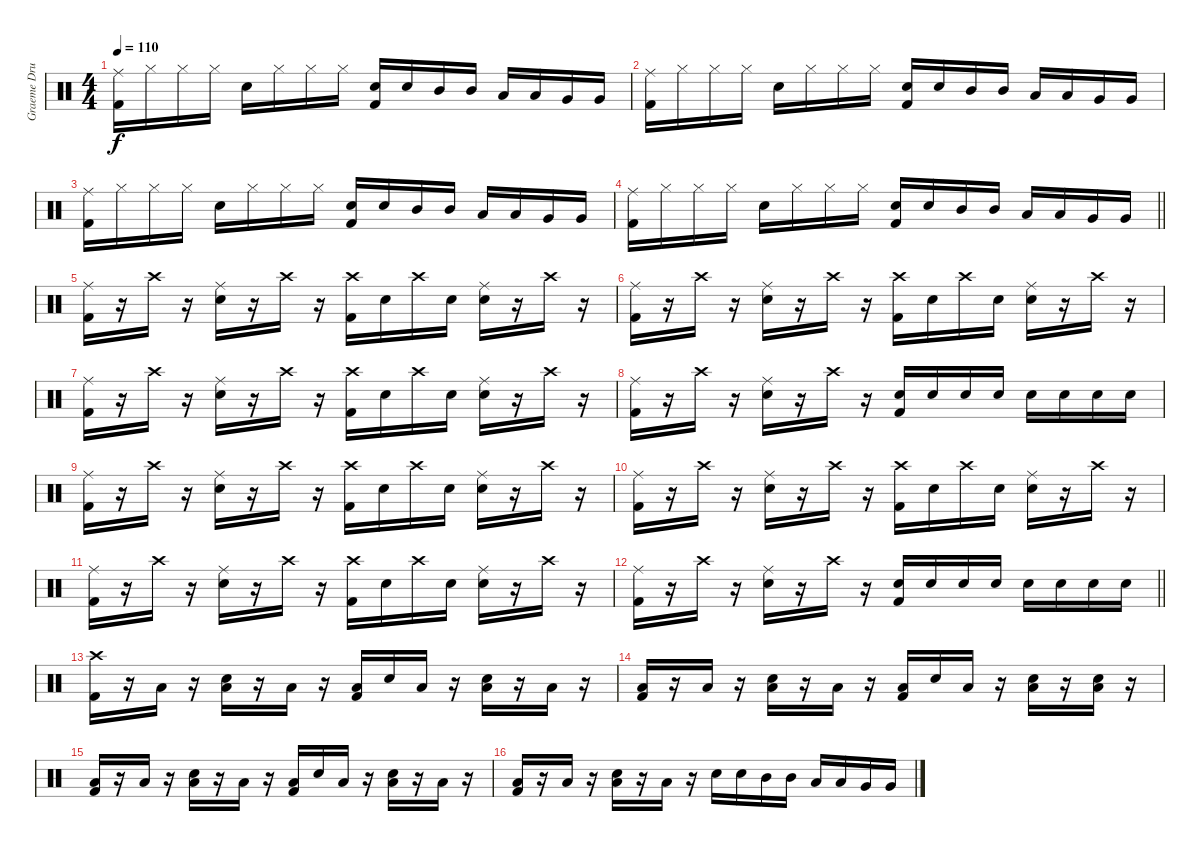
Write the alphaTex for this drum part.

\track ("Graeme Drums" "Graeme Dru") {instrument percussion}
\staff {score}
\articulation defaults
\ts (4 4)
\tempo 110
\clef neutral
\ks c
("Kick (hit) 2" "Ride (middle)").16{dy f} "Hi-Hat (closed)".16 "Hi-Hat (closed)".16 "Hi-Hat (closed)".16 "Snare (hit) 2".16 "Hi-Hat (closed)".16 "Hi-Hat (closed)".16 "Hi-Hat (closed)".16 ("Kick (hit) 2" "Snare (hit) 2").16 "Snare (hit) 2".16 "Mid Tom (hit)".16 "Mid Tom (hit)".16 "Low Tom (hit)".16 "Low Tom (hit)".16 "Very Low Tom (hit)".16 "Very Low Tom (hit)".16 |
("Kick (hit) 2" "Ride (middle)").16 "Hi-Hat (closed)".16 "Hi-Hat (closed)".16 "Hi-Hat (closed)".16 "Snare (hit) 2".16 "Hi-Hat (closed)".16 "Hi-Hat (closed)".16 "Hi-Hat (closed)".16 ("Kick (hit) 2" "Snare (hit) 2").16 "Snare (hit) 2".16 "Mid Tom (hit)".16 "Mid Tom (hit)".16 "Low Tom (hit)".16 "Low Tom (hit)".16 "Very Low Tom (hit)".16 "Very Low Tom (hit)".16 |
("Kick (hit) 2" "Ride (middle)").16 "Hi-Hat (closed)".16 "Hi-Hat (closed)".16 "Hi-Hat (closed)".16 "Snare (hit) 2".16 "Hi-Hat (closed)".16 "Hi-Hat (closed)".16 "Hi-Hat (closed)".16 ("Kick (hit) 2" "Snare (hit) 2").16 "Snare (hit) 2".16 "Mid Tom (hit)".16 "Mid Tom (hit)".16 "Low Tom (hit)".16 "Low Tom (hit)".16 "Very Low Tom (hit)".16 "Very Low Tom (hit)".16 |
\barLineRight lightlight
("Kick (hit) 2" "Ride (middle)").16 "Hi-Hat (closed)".16 "Hi-Hat (closed)".16 "Hi-Hat (closed)".16 "Snare (hit) 2".16 "Hi-Hat (closed)".16 "Hi-Hat (closed)".16 "Hi-Hat (closed)".16 ("Kick (hit) 2" "Snare (hit) 2").16 "Snare (hit) 2".16 "Mid Tom (hit)".16 "Mid Tom (hit)".16 "Low Tom (hit)".16 "Low Tom (hit)".16 "Very Low Tom (hit)".16 "Very Low Tom (hit)".16 |
("Kick (hit) 2" "Ride (middle)").16 r.16 "Crash high (hit)".16 r.16 ("Ride (middle)" "Snare (hit) 2").16 r.16 "Crash high (hit)".16 r.16 ("Kick (hit) 2" "Crash high (hit)").16 "Snare (hit) 2".16 "Crash high (hit)".16 "Snare (hit) 2".16 ("Ride (middle)" "Snare (hit) 2").16 r.16 "Crash high (hit)".16 r.16 |
("Kick (hit) 2" "Ride (middle)").16 r.16 "Crash high (hit)".16 r.16 ("Ride (middle)" "Snare (hit) 2").16 r.16 "Crash high (hit)".16 r.16 ("Kick (hit) 2" "Crash high (hit)").16 "Snare (hit) 2".16 "Crash high (hit)".16 "Snare (hit) 2".16 ("Ride (middle)" "Snare (hit) 2").16 r.16 "Crash high (hit)".16 r.16 |
("Kick (hit) 2" "Ride (middle)").16 r.16 "Crash high (hit)".16 r.16 ("Ride (middle)" "Snare (hit) 2").16 r.16 "Crash high (hit)".16 r.16 ("Kick (hit) 2" "Crash high (hit)").16 "Snare (hit) 2".16 "Crash high (hit)".16 "Snare (hit) 2".16 ("Ride (middle)" "Snare (hit) 2").16 r.16 "Crash high (hit)".16 r.16 |
("Kick (hit) 2" "Ride (middle)").16 r.16 "Crash high (hit)".16 r.16 ("Ride (middle)" "Snare (hit) 2").16 r.16 "Crash high (hit)".16 r.16 ("Kick (hit) 2" "Snare (hit) 2").16 "Snare (hit) 2".16 "Snare (hit) 2".16 "Snare (hit) 2".16 "Snare (hit) 2".16 "Snare (hit) 2".16 "Snare (hit) 2".16 "Snare (hit) 2".16 |
("Kick (hit) 2" "Ride (middle)").16 r.16 "Crash high (hit)".16 r.16 ("Ride (middle)" "Snare (hit) 2").16 r.16 "Crash high (hit)".16 r.16 ("Kick (hit) 2" "Crash high (hit)").16 "Snare (hit) 2".16 "Crash high (hit)".16 "Snare (hit) 2".16 ("Ride (middle)" "Snare (hit) 2").16 r.16 "Crash high (hit)".16 r.16 |
("Kick (hit) 2" "Ride (middle)").16 r.16 "Crash high (hit)".16 r.16 ("Ride (middle)" "Snare (hit) 2").16 r.16 "Crash high (hit)".16 r.16 ("Kick (hit) 2" "Crash high (hit)").16 "Snare (hit) 2".16 "Crash high (hit)".16 "Snare (hit) 2".16 ("Ride (middle)" "Snare (hit) 2").16 r.16 "Crash high (hit)".16 r.16 |
("Kick (hit) 2" "Ride (middle)").16 r.16 "Crash high (hit)".16 r.16 ("Ride (middle)" "Snare (hit) 2").16 r.16 "Crash high (hit)".16 r.16 ("Kick (hit) 2" "Crash high (hit)").16 "Snare (hit) 2".16 "Crash high (hit)".16 "Snare (hit) 2".16 ("Ride (middle)" "Snare (hit) 2").16 r.16 "Crash high (hit)".16 r.16 |
\barLineRight lightlight
("Kick (hit) 2" "Ride (middle)").16 r.16 "Crash high (hit)".16 r.16 ("Ride (middle)" "Snare (hit) 2").16 r.16 "Crash high (hit)".16 r.16 ("Kick (hit) 2" "Snare (hit) 2").16 "Snare (hit) 2".16 "Snare (hit) 2".16 "Snare (hit) 2".16 "Snare (hit) 2".16 "Snare (hit) 2".16 "Snare (hit) 2".16 "Snare (hit) 2".16 |
("Kick (hit) 2" "Crash high (hit)").16 r.16 "Low Tom (hit)".16 r.16 ("Low Tom (hit)" "Snare (hit) 2").16 r.16 "Low Tom (hit)".16 r.16 ("Kick (hit) 2" "Low Tom (hit)").16 "Snare (hit) 2".16 "Low Tom (hit)".16 r.16 ("Low Tom (hit)" "Snare (hit) 2").16 r.16 "Low Tom (hit)".16 r.16 |
("Kick (hit) 2" "Low Tom (hit)").16 r.16 "Low Tom (hit)".16 r.16 ("Low Tom (hit)" "Snare (hit) 2").16 r.16 "Low Tom (hit)".16 r.16 ("Kick (hit) 2" "Low Tom (hit)").16 "Snare (hit) 2".16 "Low Tom (hit)".16 r.16 ("Low Tom (hit)" "Snare (hit) 2").16 r.16 ("Low Tom (hit)" "Snare (hit) 2").16 r.16 |
("Kick (hit) 2" "Low Tom (hit)").16 r.16 "Low Tom (hit)".16 r.16 ("Low Tom (hit)" "Snare (hit) 2").16 r.16 "Low Tom (hit)".16 r.16 ("Kick (hit) 2" "Low Tom (hit)").16 "Snare (hit) 2".16 "Low Tom (hit)".16 r.16 ("Low Tom (hit)" "Snare (hit) 2").16 r.16 "Low Tom (hit)".16 r.16 |
("Kick (hit) 2" "Low Tom (hit)").16 r.16 "Low Tom (hit)".16 r.16 ("Low Tom (hit)" "Snare (hit) 2").16 r.16 "Low Tom (hit)".16 r.16 "Snare (hit) 2".16 "Snare (hit) 2".16 "Mid Tom (hit)".16 "Mid Tom (hit)".16 "Low Tom (hit)".16 "Low Tom (hit)".16 "Very Low Tom (hit)".16 "Very Low Tom (hit)".16
